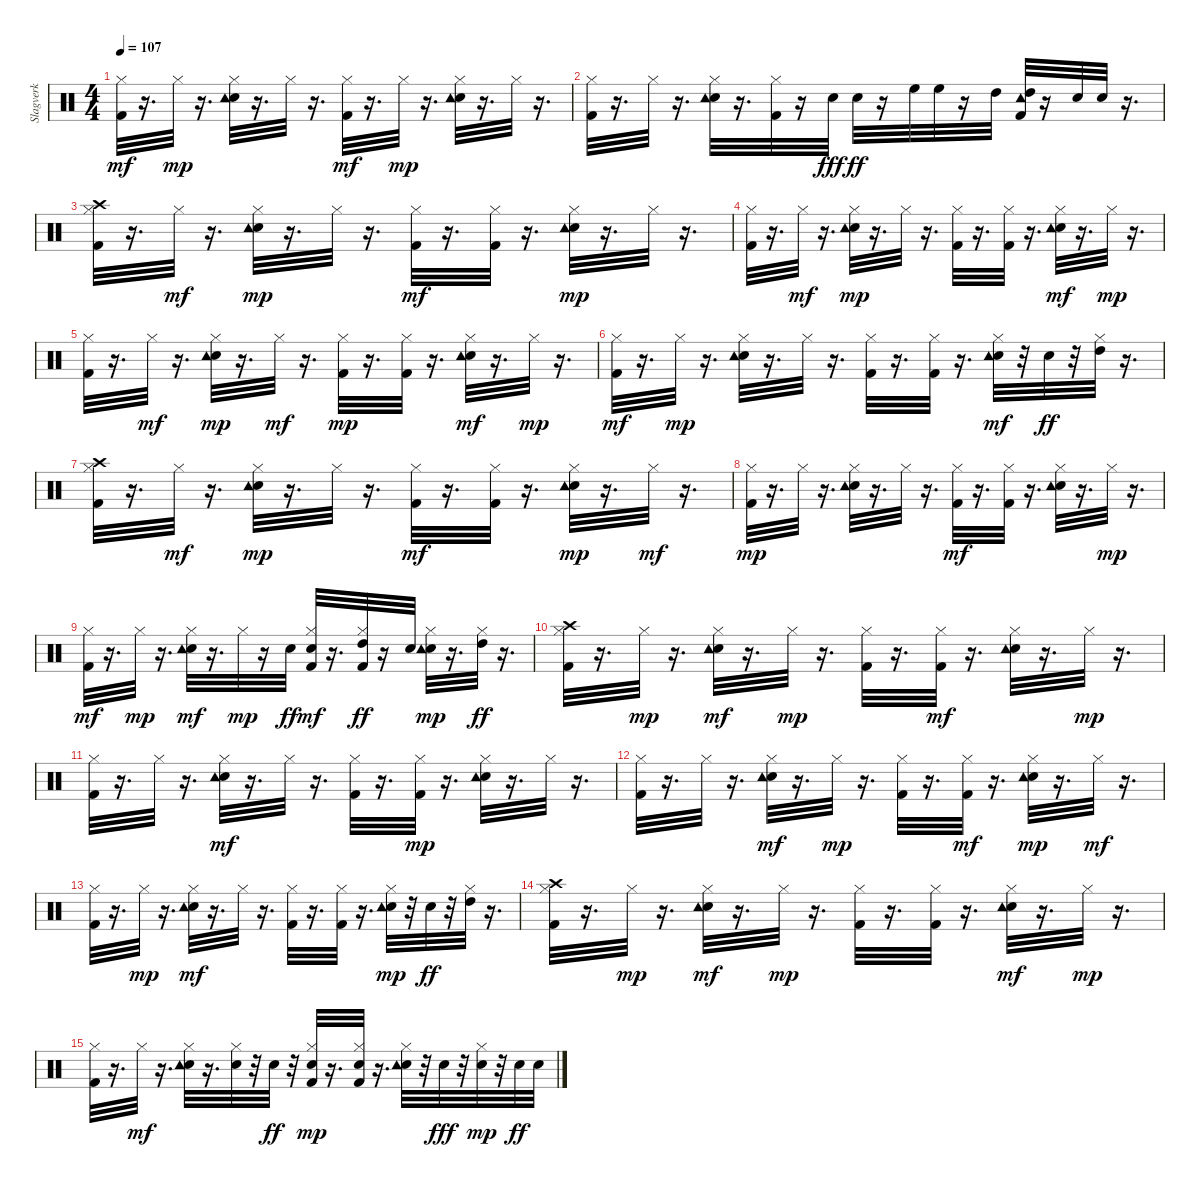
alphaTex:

\track ("Slagverk" "Slagverk") {instrument percussion}
\staff {score}
\articulation defaults
\ts (4 4)
\tempo 107
\clef neutral
\ks c
("Kick (hit) 2" "Hi-Hat (closed)").32{dy mf} r.16{d} "Hi-Hat (closed)".32{dy mp} r.16{d} ("Snare (hit) 2" "Hi-Hat (closed)" "Tambourine (hit)").32 r.16{d} "Hi-Hat (closed)".32 r.16{d} ("Kick (hit) 2" "Hi-Hat (closed)").32{dy mf} r.16{d} "Hi-Hat (closed)".32{dy mp} r.16{d} ("Snare (hit) 2" "Hi-Hat (closed)" "Tambourine (hit)").32 r.16{d} "Hi-Hat (closed)".32 r.16{d} |
("Kick (hit) 2" "Hi-Hat (closed)").32 r.16{d} "Hi-Hat (closed)".32 r.16{d} ("Snare (hit) 2" "Hi-Hat (closed)" "Tambourine (hit)").32 r.16{d} ("Kick (hit) 2" "Hi-Hat (closed)").32 r.16 "Snare (hit) 2".32{dy fff} "Snare (hit) 2".32{dy ff} r.16 "High Floor Tom (hit)".32 "High Floor Tom (hit)".32 r.16 "High Tom (hit)".32 ("Kick (hit) 2" "High Tom (hit)" "Tambourine (hit)").32 r.16 "Snare (hit) 2".32 "Snare (hit) 2".32 r.16{d} |
("Kick (hit) 2" "Hi-Hat (closed)" "Crash high (hit)").32 r.16{d} "Hi-Hat (closed)".32{dy mf} r.16{d} ("Snare (hit) 2" "Hi-Hat (closed)" "Tambourine (hit)").32{dy mp} r.16{d} "Hi-Hat (closed)".32 r.16{d} ("Kick (hit) 2" "Hi-Hat (closed)").32{dy mf} r.16{d} ("Kick (hit) 2" "Hi-Hat (closed)").32 r.16{d} ("Snare (hit) 2" "Hi-Hat (closed)" "Tambourine (hit)").32{dy mp} r.16{d} "Hi-Hat (closed)".32 r.16{d} |
("Kick (hit) 2" "Hi-Hat (closed)").32 r.16{d} "Hi-Hat (closed)".32{dy mf} r.16{d} ("Snare (hit) 2" "Hi-Hat (closed)" "Tambourine (hit)").32{dy mp} r.16{d} "Hi-Hat (closed)".32 r.16{d} ("Kick (hit) 2" "Hi-Hat (closed)").32 r.16{d} ("Kick (hit) 2" "Hi-Hat (closed)").32 r.16{d} ("Snare (hit) 2" "Hi-Hat (closed)" "Tambourine (hit)").32{dy mf} r.16{d} "Hi-Hat (closed)".32{dy mp} r.16{d} |
("Kick (hit) 2" "Hi-Hat (closed)").32 r.16{d} "Hi-Hat (closed)".32{dy mf} r.16{d} ("Snare (hit) 2" "Hi-Hat (closed)" "Tambourine (hit)").32{dy mp} r.16{d} "Hi-Hat (closed)".32{dy mf} r.16{d} ("Kick (hit) 2" "Hi-Hat (closed)").32{dy mp} r.16{d} ("Kick (hit) 2" "Hi-Hat (closed)").32 r.16{d} ("Snare (hit) 2" "Hi-Hat (closed)" "Tambourine (hit)").32{dy mf} r.16{d} "Hi-Hat (closed)".32{dy mp} r.16{d} |
("Kick (hit) 2" "Hi-Hat (closed)").32{dy mf} r.16{d} "Hi-Hat (closed)".32{dy mp} r.16{d} ("Snare (hit) 2" "Hi-Hat (closed)" "Tambourine (hit)").32 r.16{d} "Hi-Hat (closed)".32 r.16{d} ("Kick (hit) 2" "Hi-Hat (closed)").32 r.16{d} ("Kick (hit) 2" "Hi-Hat (closed)").32 r.16{d} ("Snare (hit) 2" "Hi-Hat (closed)" "Tambourine (hit)").32{dy mf} r.32 "Snare (hit) 2".32{dy ff} r.32 ("Hi-Hat (closed)" "High Tom (hit)").32 r.16{d} |
("Kick (hit) 2" "Hi-Hat (closed)" "Crash high (hit)").32 r.16{d} "Hi-Hat (closed)".32{dy mf} r.16{d} ("Snare (hit) 2" "Hi-Hat (closed)" "Tambourine (hit)").32{dy mp} r.16{d} "Hi-Hat (closed)".32 r.16{d} ("Kick (hit) 2" "Hi-Hat (closed)").32{dy mf} r.16{d} ("Kick (hit) 2" "Hi-Hat (closed)").32 r.16{d} ("Snare (hit) 2" "Hi-Hat (closed)" "Tambourine (hit)").32{dy mp} r.16{d} "Hi-Hat (closed)".32{dy mf} r.16{d} |
("Kick (hit) 2" "Hi-Hat (closed)").32{dy mp} r.16{d} "Hi-Hat (closed)".32 r.16{d} ("Snare (hit) 2" "Hi-Hat (closed)" "Tambourine (hit)").32 r.16{d} "Hi-Hat (closed)".32 r.16{d} ("Kick (hit) 2" "Hi-Hat (closed)").32{dy mf} r.16{d} ("Kick (hit) 2" "Hi-Hat (closed)").32 r.16{d} ("Snare (hit) 2" "Hi-Hat (closed)" "Tambourine (hit)").32 r.16{d} "Hi-Hat (closed)".32{dy mp} r.16{d} |
("Kick (hit) 2" "Hi-Hat (closed)").32{dy mf} r.16{d} "Hi-Hat (closed)".32{dy mp} r.16{d} ("Snare (hit) 2" "Hi-Hat (closed)" "Tambourine (hit)").32{dy mf} r.16{d} "Hi-Hat (closed)".32{dy mp} r.16 "Snare (hit) 2".32{dy ff} ("Kick (hit) 2" "Snare (hit) 2" "Hi-Hat (closed)").32{dy mf} r.16{d} ("Kick (hit) 2" "Hi-Hat (closed)" "High Tom (hit)").32{dy ff} r.16 "Snare (hit) 2".32 ("Snare (hit) 2" "Hi-Hat (closed)" "Tambourine (hit)").32{dy mp} r.16{d} ("Hi-Hat (closed)" "High Tom (hit)").32{dy ff} r.16{d} |
("Kick (hit) 2" "Hi-Hat (closed)" "Crash high (hit)").32 r.16{d} "Hi-Hat (closed)".32{dy mp} r.16{d} ("Snare (hit) 2" "Hi-Hat (closed)" "Tambourine (hit)").32{dy mf} r.16{d} "Hi-Hat (closed)".32{dy mp} r.16{d} ("Kick (hit) 2" "Hi-Hat (closed)").32 r.16{d} ("Kick (hit) 2" "Hi-Hat (closed)").32{dy mf} r.16{d} ("Snare (hit) 2" "Hi-Hat (closed)" "Tambourine (hit)").32 r.16{d} "Hi-Hat (closed)".32{dy mp} r.16{d} |
("Kick (hit) 2" "Hi-Hat (closed)").32 r.16{d} "Hi-Hat (closed)".32 r.16{d} ("Snare (hit) 2" "Hi-Hat (closed)" "Tambourine (hit)").32{dy mf} r.16{d} "Hi-Hat (closed)".32 r.16{d} ("Kick (hit) 2" "Hi-Hat (closed)").32 r.16{d} ("Kick (hit) 2" "Hi-Hat (closed)").32{dy mp} r.16{d} ("Snare (hit) 2" "Hi-Hat (closed)" "Tambourine (hit)").32 r.16{d} "Hi-Hat (closed)".32 r.16{d} |
("Kick (hit) 2" "Hi-Hat (closed)").32 r.16{d} "Hi-Hat (closed)".32 r.16{d} ("Snare (hit) 2" "Hi-Hat (closed)" "Tambourine (hit)").32{dy mf} r.16{d} "Hi-Hat (closed)".32{dy mp} r.16{d} ("Kick (hit) 2" "Hi-Hat (closed)").32 r.16{d} ("Kick (hit) 2" "Hi-Hat (closed)").32{dy mf} r.16{d} ("Snare (hit) 2" "Hi-Hat (closed)" "Tambourine (hit)").32{dy mp} r.16{d} "Hi-Hat (closed)".32{dy mf} r.16{d} |
("Kick (hit) 2" "Hi-Hat (closed)").32 r.16{d} "Hi-Hat (closed)".32{dy mp} r.16{d} ("Snare (hit) 2" "Hi-Hat (closed)" "Tambourine (hit)").32{dy mf} r.16{d} "Hi-Hat (closed)".32 r.16{d} ("Kick (hit) 2" "Hi-Hat (closed)").32 r.16{d} ("Kick (hit) 2" "Hi-Hat (closed)").32 r.16{d} ("Snare (hit) 2" "Hi-Hat (closed)" "Tambourine (hit)").32{dy mp} r.32 "Snare (hit) 2".32{dy ff} r.32 ("Hi-Hat (closed)" "High Tom (hit)").32 r.16{d} |
("Kick (hit) 2" "Hi-Hat (closed)" "Crash high (hit)").32 r.16{d} "Hi-Hat (closed)".32{dy mp} r.16{d} ("Snare (hit) 2" "Hi-Hat (closed)" "Tambourine (hit)").32{dy mf} r.16{d} "Hi-Hat (closed)".32{dy mp} r.16{d} ("Kick (hit) 2" "Hi-Hat (closed)").32 r.16{d} ("Kick (hit) 2" "Hi-Hat (closed)").32 r.16{d} ("Snare (hit) 2" "Hi-Hat (closed)" "Tambourine (hit)").32{dy mf} r.16{d} "Hi-Hat (closed)".32{dy mp} r.16{d} |
("Kick (hit) 2" "Hi-Hat (closed)").32 r.16{d} "Hi-Hat (closed)".32{dy mf} r.16{d} ("Snare (hit) 2" "Hi-Hat (closed)" "Tambourine (hit)").32 r.16{d} ("Snare (hit) 2" "Hi-Hat (closed)").32 r.32 "Snare (hit) 2".32{dy ff} r.32 ("Kick (hit) 2" "Snare (hit) 2" "Hi-Hat (closed)").32{dy mp} r.16{d} ("Kick (hit) 2" "Snare (hit) 2" "Hi-Hat (closed)").32 r.16{d} ("Snare (hit) 2" "Hi-Hat (closed)" "Tambourine (hit)").32 r.32 "Snare (hit) 2".32{dy fff} r.32 ("Snare (hit) 2" "Hi-Hat (closed)").32{dy mp} r.32 "Snare (hit) 2".32{dy ff} "Snare (hit) 2".32
